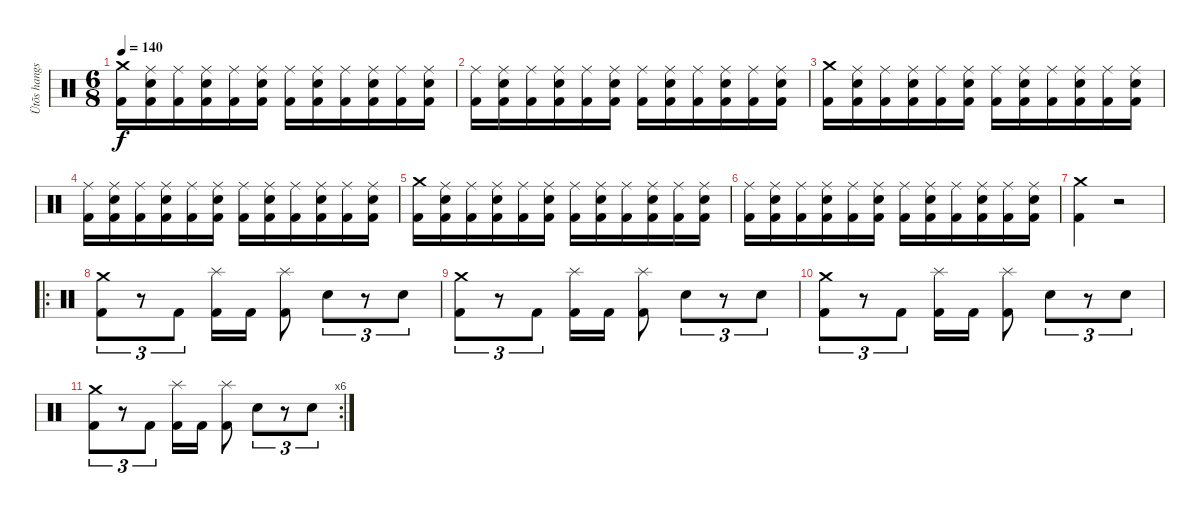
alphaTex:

\track ("Ütõs hangszer" "Ütõs hangs") {instrument percussion}
\staff {score}
\articulation defaults
\ts (6 8)
\tempo 140
\clef neutral
\ks c
("Crash medium (hit)" "Kick (hit) 2").16{dy f} ("Ride (middle)" "Electric Snare (hit)" "Kick (hit) 2").16 ("Ride (middle)" "Kick (hit) 2").16 ("Ride (middle)" "Electric Snare (hit)" "Kick (hit) 2").16 ("Ride (middle)" "Kick (hit) 2").16 ("Ride (middle)" "Electric Snare (hit)" "Kick (hit) 2").16 ("Ride (middle)" "Kick (hit) 2").16 ("Ride (middle)" "Electric Snare (hit)" "Kick (hit) 2").16 ("Ride (middle)" "Kick (hit) 2").16 ("Ride (middle)" "Electric Snare (hit)" "Kick (hit) 2").16 ("Ride (middle)" "Kick (hit) 2").16 ("Ride (middle)" "Electric Snare (hit)" "Kick (hit) 2").16 |
("Ride (middle)" "Kick (hit) 2").16 ("Ride (middle)" "Electric Snare (hit)" "Kick (hit) 2").16 ("Ride (middle)" "Kick (hit) 2").16 ("Ride (middle)" "Electric Snare (hit)" "Kick (hit) 2").16 ("Ride (middle)" "Kick (hit) 2").16 ("Ride (middle)" "Electric Snare (hit)" "Kick (hit) 2").16 ("Ride (middle)" "Kick (hit) 2").16 ("Ride (middle)" "Electric Snare (hit)" "Kick (hit) 2").16 ("Ride (middle)" "Kick (hit) 2").16 ("Ride (middle)" "Electric Snare (hit)" "Kick (hit) 2").16 ("Ride (middle)" "Kick (hit) 2").16 ("Ride (middle)" "Electric Snare (hit)" "Kick (hit) 2").16 |
("Crash medium (hit)" "Kick (hit) 2").16 ("Ride (middle)" "Electric Snare (hit)" "Kick (hit) 2").16 ("Ride (middle)" "Kick (hit) 2").16 ("Ride (middle)" "Electric Snare (hit)" "Kick (hit) 2").16 ("Ride (middle)" "Kick (hit) 2").16 ("Ride (middle)" "Electric Snare (hit)" "Kick (hit) 2").16 ("Ride (middle)" "Kick (hit) 2").16 ("Ride (middle)" "Electric Snare (hit)" "Kick (hit) 2").16 ("Ride (middle)" "Kick (hit) 2").16 ("Ride (middle)" "Electric Snare (hit)" "Kick (hit) 2").16 ("Ride (middle)" "Kick (hit) 2").16 ("Ride (middle)" "Electric Snare (hit)" "Kick (hit) 2").16 |
("Ride (middle)" "Kick (hit) 2").16 ("Ride (middle)" "Electric Snare (hit)" "Kick (hit) 2").16 ("Ride (middle)" "Kick (hit) 2").16 ("Ride (middle)" "Electric Snare (hit)" "Kick (hit) 2").16 ("Ride (middle)" "Kick (hit) 2").16 ("Ride (middle)" "Electric Snare (hit)" "Kick (hit) 2").16 ("Ride (middle)" "Kick (hit) 2").16 ("Ride (middle)" "Electric Snare (hit)" "Kick (hit) 2").16 ("Ride (middle)" "Kick (hit) 2").16 ("Ride (middle)" "Electric Snare (hit)" "Kick (hit) 2").16 ("Ride (middle)" "Kick (hit) 2").16 ("Ride (middle)" "Electric Snare (hit)" "Kick (hit) 2").16 |
("Crash medium (hit)" "Kick (hit) 2").16 ("Ride (middle)" "Electric Snare (hit)" "Kick (hit) 2").16 ("Ride (middle)" "Kick (hit) 2").16 ("Ride (middle)" "Electric Snare (hit)" "Kick (hit) 2").16 ("Ride (middle)" "Kick (hit) 2").16 ("Ride (middle)" "Electric Snare (hit)" "Kick (hit) 2").16 ("Ride (middle)" "Kick (hit) 2").16 ("Ride (middle)" "Electric Snare (hit)" "Kick (hit) 2").16 ("Ride (middle)" "Kick (hit) 2").16 ("Ride (middle)" "Electric Snare (hit)" "Kick (hit) 2").16 ("Ride (middle)" "Kick (hit) 2").16 ("Ride (middle)" "Electric Snare (hit)" "Kick (hit) 2").16 |
("Ride (middle)" "Kick (hit) 2").16 ("Ride (middle)" "Electric Snare (hit)" "Kick (hit) 2").16 ("Ride (middle)" "Kick (hit) 2").16 ("Ride (middle)" "Electric Snare (hit)" "Kick (hit) 2").16 ("Ride (middle)" "Kick (hit) 2").16 ("Ride (middle)" "Electric Snare (hit)" "Kick (hit) 2").16 ("Ride (middle)" "Kick (hit) 2").16 ("Ride (middle)" "Electric Snare (hit)" "Kick (hit) 2").16 ("Ride (middle)" "Kick (hit) 2").16 ("Ride (middle)" "Electric Snare (hit)" "Kick (hit) 2").16 ("Ride (middle)" "Kick (hit) 2").16 ("Ride (middle)" "Electric Snare (hit)" "Kick (hit) 2").16 |
("Crash medium (hit)" "Kick (hit) 2").4 r.2 |
\ro
("Crash medium (hit)" "Kick (hit) 2").8{tu (3 2)} r.8{tu (3 2)} "Kick (hit) 2".8{tu (3 2)} ("Splash (hit)" "Kick (hit) 2").16 "Kick (hit) 2".16 ("Splash (hit)" "Kick (hit) 2").8 "Electric Snare (hit)".8{tu (3 2)} r.8{tu (3 2)} "Electric Snare (hit)".8{tu (3 2)} |
("Crash medium (hit)" "Kick (hit) 2").8{tu (3 2)} r.8{tu (3 2)} "Kick (hit) 2".8{tu (3 2)} ("Splash (hit)" "Kick (hit) 2").16 "Kick (hit) 2".16 ("Splash (hit)" "Kick (hit) 2").8 "Electric Snare (hit)".8{tu (3 2)} r.8{tu (3 2)} "Electric Snare (hit)".8{tu (3 2)} |
("Crash medium (hit)" "Kick (hit) 2").8{tu (3 2)} r.8{tu (3 2)} "Kick (hit) 2".8{tu (3 2)} ("Splash (hit)" "Kick (hit) 2").16 "Kick (hit) 2".16 ("Splash (hit)" "Kick (hit) 2").8 "Electric Snare (hit)".8{tu (3 2)} r.8{tu (3 2)} "Electric Snare (hit)".8{tu (3 2)} |
\rc 6
("Crash medium (hit)" "Kick (hit) 2").8{tu (3 2)} r.8{tu (3 2)} "Kick (hit) 2".8{tu (3 2)} ("Splash (hit)" "Kick (hit) 2").16 "Kick (hit) 2".16 ("Splash (hit)" "Kick (hit) 2").8 "Electric Snare (hit)".8{tu (3 2)} r.8{tu (3 2)} "Electric Snare (hit)".8{tu (3 2)}
